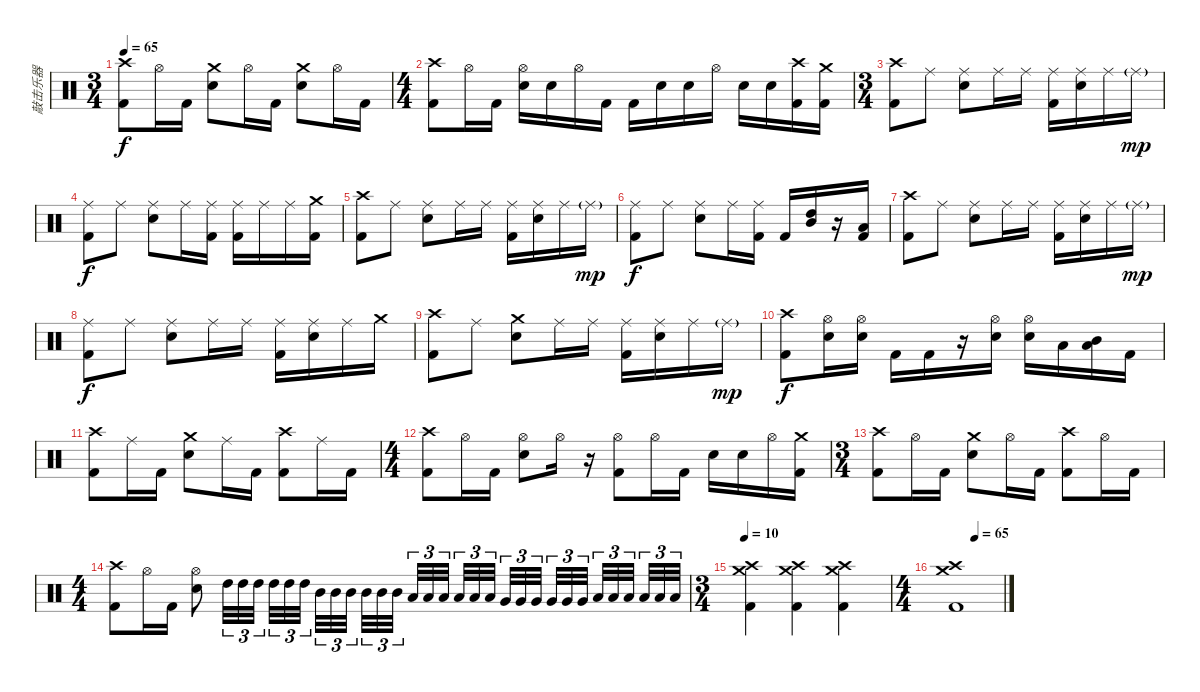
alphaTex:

\track ("敲击乐器" "敲击乐器") {instrument percussion}
\staff {score}
\articulation defaults
\ts (3 4)
\tempo 65
\clef neutral
\ks c
("Kick (hit) 2" "Crash high (hit)").8{dy f} "Hi-Hat (open)".16 "Kick (hit) 2".16 ("Snare (hit) 2" "Crash medium (hit)").8 "Hi-Hat (open)".16 "Kick (hit) 2".16 ("Crash medium (hit)" "Snare (hit) 2").8 "Hi-Hat (open)".16 "Kick (hit) 2".16 |
\ts (4 4)
("Kick (hit) 2" "Crash high (hit)").8 "Hi-Hat (open)".16 "Kick (hit) 2".16 ("Hi-Hat (open)" "Snare (hit) 2").16 "Snare (hit) 2".16 "Hi-Hat (open)".16 "Kick (hit) 2".16 "Kick (hit) 2".16 "Snare (hit) 2".16 "Snare (hit) 2".16 "Hi-Hat (open)".16 "Snare (hit) 2".16 "Snare (hit) 2".16 ("Kick (hit) 2" "Crash high (hit)").16 ("Kick (hit) 2" "Crash medium (hit)").16 |
\ts (3 4)
("Crash high (hit)" "Kick (hit) 2").8 "Ride (middle)".8 ("Ride (middle)" "Snare (hit) 2").8 "Ride (middle)".16 "Ride (middle)".16 ("Ride (middle)" "Kick (hit) 2").16 ("Ride (middle)" "Snare (hit) 2").16 "Ride (middle)".16 "Ride (middle)"{g}.16{dy mp} |
("Ride (middle)" "Kick (hit) 2").8{dy f} "Ride (middle)".8 ("Ride (middle)" "Snare (hit) 2").8 "Ride (middle)".16 ("Ride (middle)" "Kick (hit) 2").16 ("Ride (middle)" "Kick (hit) 2").16 "Ride (middle)".16 "Ride (middle)".16 ("Crash medium (hit)" "Kick (hit) 2").16 |
("Crash high (hit)" "Kick (hit) 2").8 "Ride (middle)".8 ("Ride (middle)" "Snare (hit) 2").8 "Ride (middle)".16 "Ride (middle)".16 ("Ride (middle)" "Kick (hit) 2").16 ("Ride (middle)" "Snare (hit) 2").16 "Ride (middle)".16 "Ride (middle)"{g}.16{dy mp} |
("Ride (middle)" "Kick (hit) 2").8{dy f} "Ride (middle)".8 ("Ride (middle)" "Snare (hit) 2").8 "Ride (middle)".16 ("Ride (middle)" "Kick (hit) 2").16 "Kick (hit) 2".16 ("Mid Tom (hit)" "High Tom (hit)").16 r.16 ("Low Tom (hit)" "Kick (hit) 2").16 |
("Crash high (hit)" "Kick (hit) 2").8 "Ride (middle)".8 ("Ride (middle)" "Snare (hit) 2").8 "Ride (middle)".16 "Ride (middle)".16 ("Ride (middle)" "Kick (hit) 2").16 ("Ride (middle)" "Snare (hit) 2").16 "Ride (middle)".16 "Ride (middle)"{g}.16{dy mp} |
("Ride (middle)" "Kick (hit) 2").8{dy f} "Ride (middle)".8 ("Ride (middle)" "Snare (hit) 2").8 "Ride (middle)".16 "Ride (middle)".16 ("Ride (middle)" "Kick (hit) 2").16 ("Ride (middle)" "Snare (hit) 2").16 "Ride (middle)".16 "Crash medium (hit)".16 |
("Crash high (hit)" "Kick (hit) 2").8 "Ride (middle)".8 ("Crash medium (hit)" "Snare (hit) 2").8 "Ride (middle)".16 "Ride (middle)".16 ("Ride (middle)" "Kick (hit) 2").16 ("Ride (middle)" "Snare (hit) 2").16 "Ride (middle)".16 "Ride (middle)"{g}.16{dy mp} |
("Crash high (hit)" "Kick (hit) 2").8{dy f} ("Hi-Hat (open)" "Snare (hit) 2").16 ("Hi-Hat (open)" "Snare (hit) 2").16 "Kick (hit) 2".16 "Kick (hit) 2".16 r.16 ("Hi-Hat (open)" "Snare (hit) 2").16 ("Hi-Hat (open)" "Snare (hit) 2").16 "Low Tom (hit)".16 ("Low Tom (hit)" "Mid Tom (hit)").16 "Kick (hit) 2".16 |
("Kick (hit) 2" "Crash high (hit)").8 "Ride (middle)".16 "Kick (hit) 2".16 ("Snare (hit) 2" "Crash medium (hit)").8 "Ride (middle)".16 "Kick (hit) 2".16 ("Crash high (hit)" "Kick (hit) 2").8 "Ride (middle)".16 "Kick (hit) 2".16 |
\ts (4 4)
("Kick (hit) 2" "Crash high (hit)").8 "Hi-Hat (open)".16 "Kick (hit) 2".16 ("Hi-Hat (open)" "Snare (hit) 2").8 "Hi-Hat (open)".16 r.16 ("Kick (hit) 2" "Hi-Hat (open)").8 "Hi-Hat (open)".16 "Kick (hit) 2".16 "Snare (hit) 2".16 "Snare (hit) 2".16 "Hi-Hat (open)".16 ("Kick (hit) 2" "Crash medium (hit)").16 |
\ts (3 4)
("Kick (hit) 2" "Crash high (hit)").8 "Hi-Hat (open)".16 "Kick (hit) 2".16 ("Snare (hit) 2" "Crash medium (hit)").8 "Hi-Hat (open)".16 "Kick (hit) 2".16 ("Crash high (hit)" "Kick (hit) 2").8 "Hi-Hat (open)".16 "Kick (hit) 2".16 |
\ts (4 4)
("Kick (hit) 2" "Crash high (hit)").8 "Hi-Hat (open)".16 "Kick (hit) 2".16 ("Hi-Hat (open)" "Snare (hit) 2").8 "High Tom (hit)".32{tu (3 2)} "High Tom (hit)".32{tu (3 2)} "High Tom (hit)".32{tu (3 2) beam splitsecondary} "High Tom (hit)".32{tu (3 2)} "High Tom (hit)".32{tu (3 2)} "High Tom (hit)".32{tu (3 2)} "Mid Tom (hit)".32{tu (3 2)} "Mid Tom (hit)".32{tu (3 2)} "Mid Tom (hit)".32{tu (3 2) beam splitsecondary} "Mid Tom (hit)".32{tu (3 2)} "Mid Tom (hit)".32{tu (3 2)} "Mid Tom (hit)".32{tu (3 2) beam splitsecondary} "Low Tom (hit)".32{tu (3 2)} "Low Tom (hit)".32{tu (3 2)} "Low Tom (hit)".32{tu (3 2) beam splitsecondary} "Low Tom (hit)".32{tu (3 2)} "Low Tom (hit)".32{tu (3 2)} "Low Tom (hit)".32{tu (3 2)} "Very Low Tom (hit)".32{tu (3 2)} "Very Low Tom (hit)".32{tu (3 2)} "Very Low Tom (hit)".32{tu (3 2) beam splitsecondary} "Very Low Tom (hit)".32{tu (3 2)} "Very Low Tom (hit)".32{tu (3 2)} "Very Low Tom (hit)".32{tu (3 2) beam splitsecondary} "Low Floor Tom (hit)".32{tu (3 2)} "Low Floor Tom (hit)".32{tu (3 2)} "Low Floor Tom (hit)".32{tu (3 2) beam splitsecondary} "Low Floor Tom (hit)".32{tu (3 2)} "Low Floor Tom (hit)".32{tu (3 2)} "Low Floor Tom (hit)".32{tu (3 2)} |
\ts (3 4)
\tempo 10
("Crash high (hit)" "Crash medium (hit)" "Kick (hit) 2").4 ("Crash high (hit)" "Crash medium (hit)" "Kick (hit) 2").4 ("Crash high (hit)" "Crash medium (hit)" "Kick (hit) 2").4 |
\ts (4 4)
\tempo (65 0.5)
("Crash medium (hit)" "Crash high (hit)" "Kick (hit) 2").1
